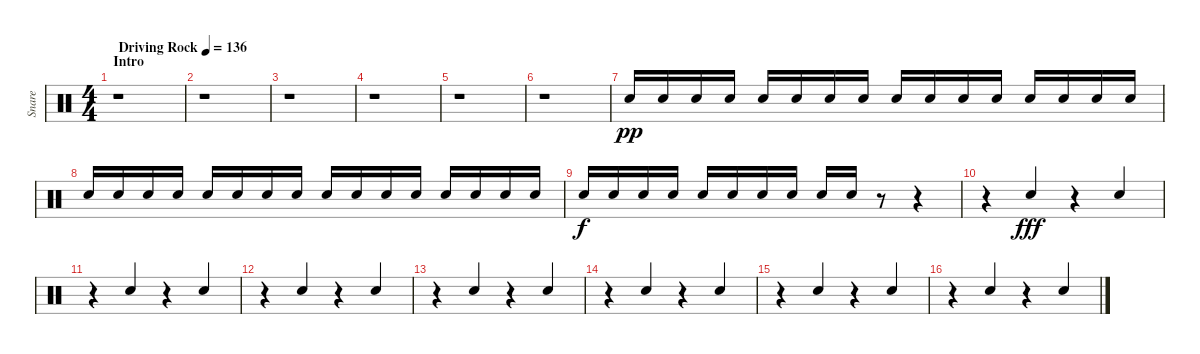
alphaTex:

\track ("Snare" "Snare") {instrument percussion}
\staff {score}
\articulation defaults
\ts (4 4)
\section ("" "Intro")
\tempo (136 "Driving Rock")
\clef neutral
\ks c
r.1{dy pp} |
r.1 |
r.1 |
r.1 |
r.1 |
r.1 |
"Snare (hit) 2".16{volume 1 beam Up} "Snare (hit) 2".16{beam Up} "Snare (hit) 2".16{beam Up} "Snare (hit) 2".16{beam Up} "Snare (hit) 2".16{beam Up} "Snare (hit) 2".16{beam Up} "Snare (hit) 2".16{beam Up} "Snare (hit) 2".16{beam Up} "Snare (hit) 2".16{beam Up} "Snare (hit) 2".16{beam Up} "Snare (hit) 2".16{beam Up} "Snare (hit) 2".16{beam Up} "Snare (hit) 2".16{beam Up} "Snare (hit) 2".16{beam Up} "Snare (hit) 2".16{beam Up} "Snare (hit) 2".16{beam Up} |
"Snare (hit) 2".16{beam Up} "Snare (hit) 2".16{beam Up} "Snare (hit) 2".16{beam Up} "Snare (hit) 2".16{beam Up} "Snare (hit) 2".16{beam Up} "Snare (hit) 2".16{beam Up} "Snare (hit) 2".16{beam Up} "Snare (hit) 2".16{beam Up} "Snare (hit) 2".16{beam Up} "Snare (hit) 2".16{beam Up} "Snare (hit) 2".16{beam Up} "Snare (hit) 2".16{beam Up} "Snare (hit) 2".16{volume 11 beam Up} "Snare (hit) 2".16{beam Up} "Snare (hit) 2".16{beam Up} "Snare (hit) 2".16{beam Up} |
"Snare (hit) 2".16{dy f beam Up} "Snare (hit) 2".16{beam Up} "Snare (hit) 2".16{beam Up} "Snare (hit) 2".16{beam Up} "Snare (hit) 2".16{beam Up} "Snare (hit) 2".16{beam Up} "Snare (hit) 2".16{beam Up} "Snare (hit) 2".16{beam Up} "Snare (hit) 2".16{beam Up} "Snare (hit) 2".16{beam Up} r.8 r.4 |
r.4{volume 13 beam merge} "Electric Snare (hit)".4{dy fff beam Up} r.4{beam merge} "Electric Snare (hit)".4{beam Up} |
r.4{beam merge} "Electric Snare (hit)".4{beam Up} r.4{beam merge} "Electric Snare (hit)".4{beam Up} |
r.4{beam merge} "Electric Snare (hit)".4{beam Up} r.4{beam merge} "Electric Snare (hit)".4{beam Up} |
r.4{beam merge} "Electric Snare (hit)".4{beam Up} r.4{beam merge} "Electric Snare (hit)".4{beam Up} |
r.4{beam merge} "Electric Snare (hit)".4{beam Up} r.4{beam merge} "Electric Snare (hit)".4{beam Up} |
r.4{beam merge} "Electric Snare (hit)".4{beam Up} r.4{beam merge} "Electric Snare (hit)".4{beam Up} |
r.4{beam merge} "Electric Snare (hit)".4{beam Up} r.4{beam merge} "Electric Snare (hit)".4{beam Up}
